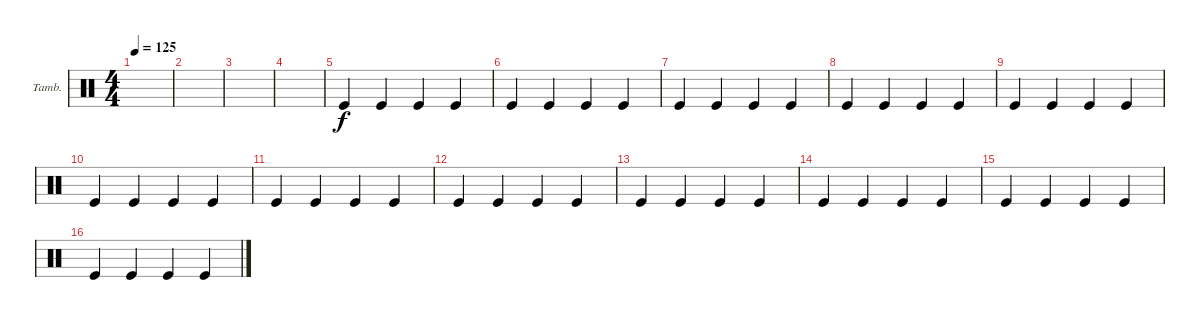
\defaultSystemsLayout 4
\bracketExtendMode groupsimilarinstruments
\firstSystemTrackNameOrientation horizontal
\otherSystemsTrackNameOrientation horizontal
\track ("Tambourine" "Tamb.") {instrument percussion}
\staff {score}
\articulation defaults
\ts (4 4)
\tempo 125
\clef neutral
\ks c
|
|
|
|
"Kick (hit)".4 "Kick (hit)".4 "Kick (hit)".4 "Kick (hit)".4 |
"Kick (hit)".4 "Kick (hit)".4 "Kick (hit)".4 "Kick (hit)".4 |
"Kick (hit)".4 "Kick (hit)".4 "Kick (hit)".4 "Kick (hit)".4 |
"Kick (hit)".4 "Kick (hit)".4 "Kick (hit)".4 "Kick (hit)".4 |
"Kick (hit)".4 "Kick (hit)".4 "Kick (hit)".4 "Kick (hit)".4 |
"Kick (hit)".4 "Kick (hit)".4 "Kick (hit)".4 "Kick (hit)".4 |
"Kick (hit)".4 "Kick (hit)".4 "Kick (hit)".4 "Kick (hit)".4 |
"Kick (hit)".4 "Kick (hit)".4 "Kick (hit)".4 "Kick (hit)".4 |
"Kick (hit)".4 "Kick (hit)".4 "Kick (hit)".4 "Kick (hit)".4 |
"Kick (hit)".4 "Kick (hit)".4 "Kick (hit)".4 "Kick (hit)".4 |
"Kick (hit)".4 "Kick (hit)".4 "Kick (hit)".4 "Kick (hit)".4 |
"Kick (hit)".4 "Kick (hit)".4 "Kick (hit)".4 "Kick (hit)".4
